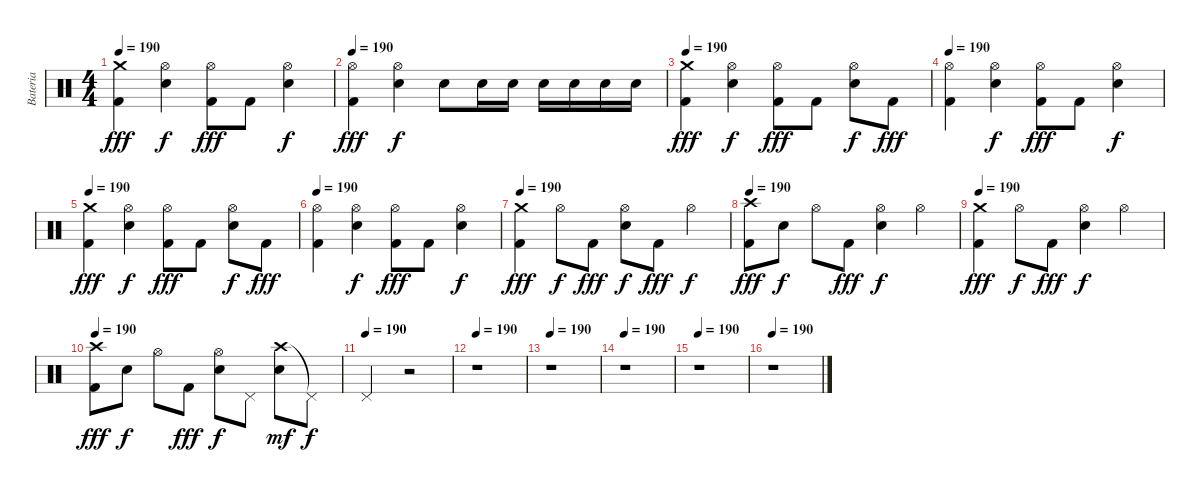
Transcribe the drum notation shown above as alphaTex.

\track ("Bateria" "Bateria") {instrument percussion}
\staff {score}
\articulation defaults
\ts (4 4)
\tempo 190
\clef neutral
\ks c
("Crash medium (hit)" "Kick (hit) 2").4{dy fff} ("Hi-Hat (open)" "Electric Snare (hit)").4{dy f} ("Hi-Hat (open)" "Kick (hit) 2").8{dy fff} "Kick (hit) 2".8 ("Hi-Hat (open)" "Electric Snare (hit)").4{dy f} |
\tempo 190
("Hi-Hat (open)" "Kick (hit) 2").4{dy fff} ("Hi-Hat (open)" "Electric Snare (hit)").4{dy f} "Electric Snare (hit)".8 "Electric Snare (hit)".16 "Electric Snare (hit)".16 "Electric Snare (hit)".16 "Electric Snare (hit)".16 "Electric Snare (hit)".16 "Electric Snare (hit)".16 |
\tempo 190
("Crash medium (hit)" "Kick (hit) 2").4{dy fff} ("Hi-Hat (open)" "Electric Snare (hit)").4{dy f} ("Hi-Hat (open)" "Kick (hit) 2").8{dy fff} "Kick (hit) 2".8 ("Hi-Hat (open)" "Electric Snare (hit)").8{dy f} "Kick (hit) 2".8{dy fff} |
\tempo 190
("Hi-Hat (open)" "Kick (hit) 2").4 ("Hi-Hat (open)" "Electric Snare (hit)").4{dy f} ("Hi-Hat (open)" "Kick (hit) 2").8{dy fff} "Kick (hit) 2".8 ("Hi-Hat (open)" "Electric Snare (hit)").4{dy f} |
\tempo 190
("Crash medium (hit)" "Kick (hit) 2").4{dy fff} ("Hi-Hat (open)" "Electric Snare (hit)").4{dy f} ("Hi-Hat (open)" "Kick (hit) 2").8{dy fff} "Kick (hit) 2".8 ("Hi-Hat (open)" "Electric Snare (hit)").8{dy f} "Kick (hit) 2".8{dy fff} |
\tempo 190
("Hi-Hat (open)" "Kick (hit) 2").4 ("Hi-Hat (open)" "Electric Snare (hit)").4{dy f} ("Hi-Hat (open)" "Kick (hit) 2").8{dy fff} "Kick (hit) 2".8 ("Hi-Hat (open)" "Electric Snare (hit)").4{dy f} |
\tempo 190
("Crash medium (hit)" "Kick (hit) 2").4{dy fff} "Hi-Hat (open)".8{dy f} "Kick (hit) 2".8{dy fff} ("Hi-Hat (open)" "Electric Snare (hit)").8{dy f} "Kick (hit) 2".8{dy fff} "Hi-Hat (open)".4{dy f} |
\tempo 190
("Crash high (hit)" "Kick (hit) 2").8{dy fff} "Electric Snare (hit)".8{dy f} "Hi-Hat (open)".8 "Kick (hit) 2".8{dy fff} ("Hi-Hat (open)" "Electric Snare (hit)").4{dy f} "Hi-Hat (open)".4 |
\tempo 190
("Crash medium (hit)" "Kick (hit) 2").4{dy fff} "Hi-Hat (open)".8{dy f} "Kick (hit) 2".8{dy fff} ("Hi-Hat (open)" "Electric Snare (hit)").4{dy f} "Hi-Hat (open)".4 |
\tempo 190
("Crash high (hit)" "Kick (hit) 2").8{dy fff} "Electric Snare (hit)".8{dy f} "Hi-Hat (open)".8 "Kick (hit) 2".8{dy fff} ("Hi-Hat (open)" "Electric Snare (hit)").8{dy f} "Pedal Hi-Hat (hit)".8 ("Crash high (hit)" "Electric Snare (hit)").8{dy mf} "Pedal Hi-Hat (hit)"{t}.8{dy f} |
\tempo (190)
"Pedal Hi-Hat (hit)".2 r.2 |
\tempo 190
r.1 |
\tempo 190
r.1 |
\tempo 190
r.1 |
\tempo 190
r.1 |
\tempo 190
r.1
